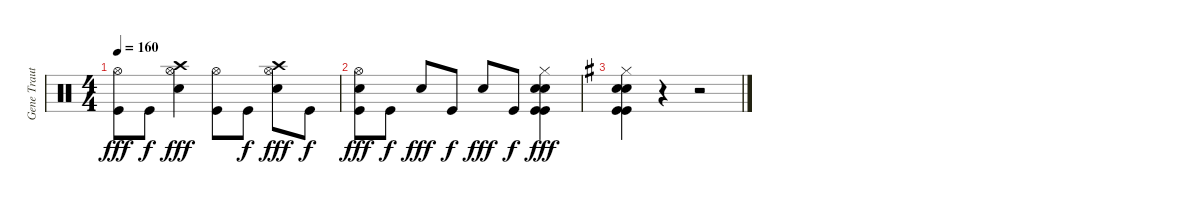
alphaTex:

\track ("Gene Trautmann" "Gene Traut") {instrument percussion}
\staff {score}
\articulation defaults
\ts (4 4)
\tempo 160
\clef neutral
\ks c
("Hi-Hat (open)" "Kick (hit)").8{dy fff} "Kick (hit)".8{dy f} ("Crash high (hit)" "Hi-Hat (open)" "Snare (hit) 2").4{dy fff} ("Hi-Hat (open)" "Kick (hit)").8 "Kick (hit)".8{dy f} ("Crash high (hit)" "Hi-Hat (open)" "Snare (hit) 2").8{dy fff} "Kick (hit)".8{dy f} |
("Hi-Hat (open)" "Snare (hit) 2" "Kick (hit)").8{dy fff} "Kick (hit)".8{dy f} "Snare (hit) 2".8{dy fff} "Kick (hit)".8{dy f} "Snare (hit) 2".8{dy fff} "Kick (hit)".8{dy f} ("Kick (hit)" "Snare (hit) 2" "Hi-Hat (closed)" "Snare (hit) 2" "Kick (hit)").4{dy fff} |
\ks g
("Kick (hit)" "Snare (hit) 2" "Hi-Hat (closed)" "Snare (hit) 2" "Kick (hit)").4 r.4 r.2
